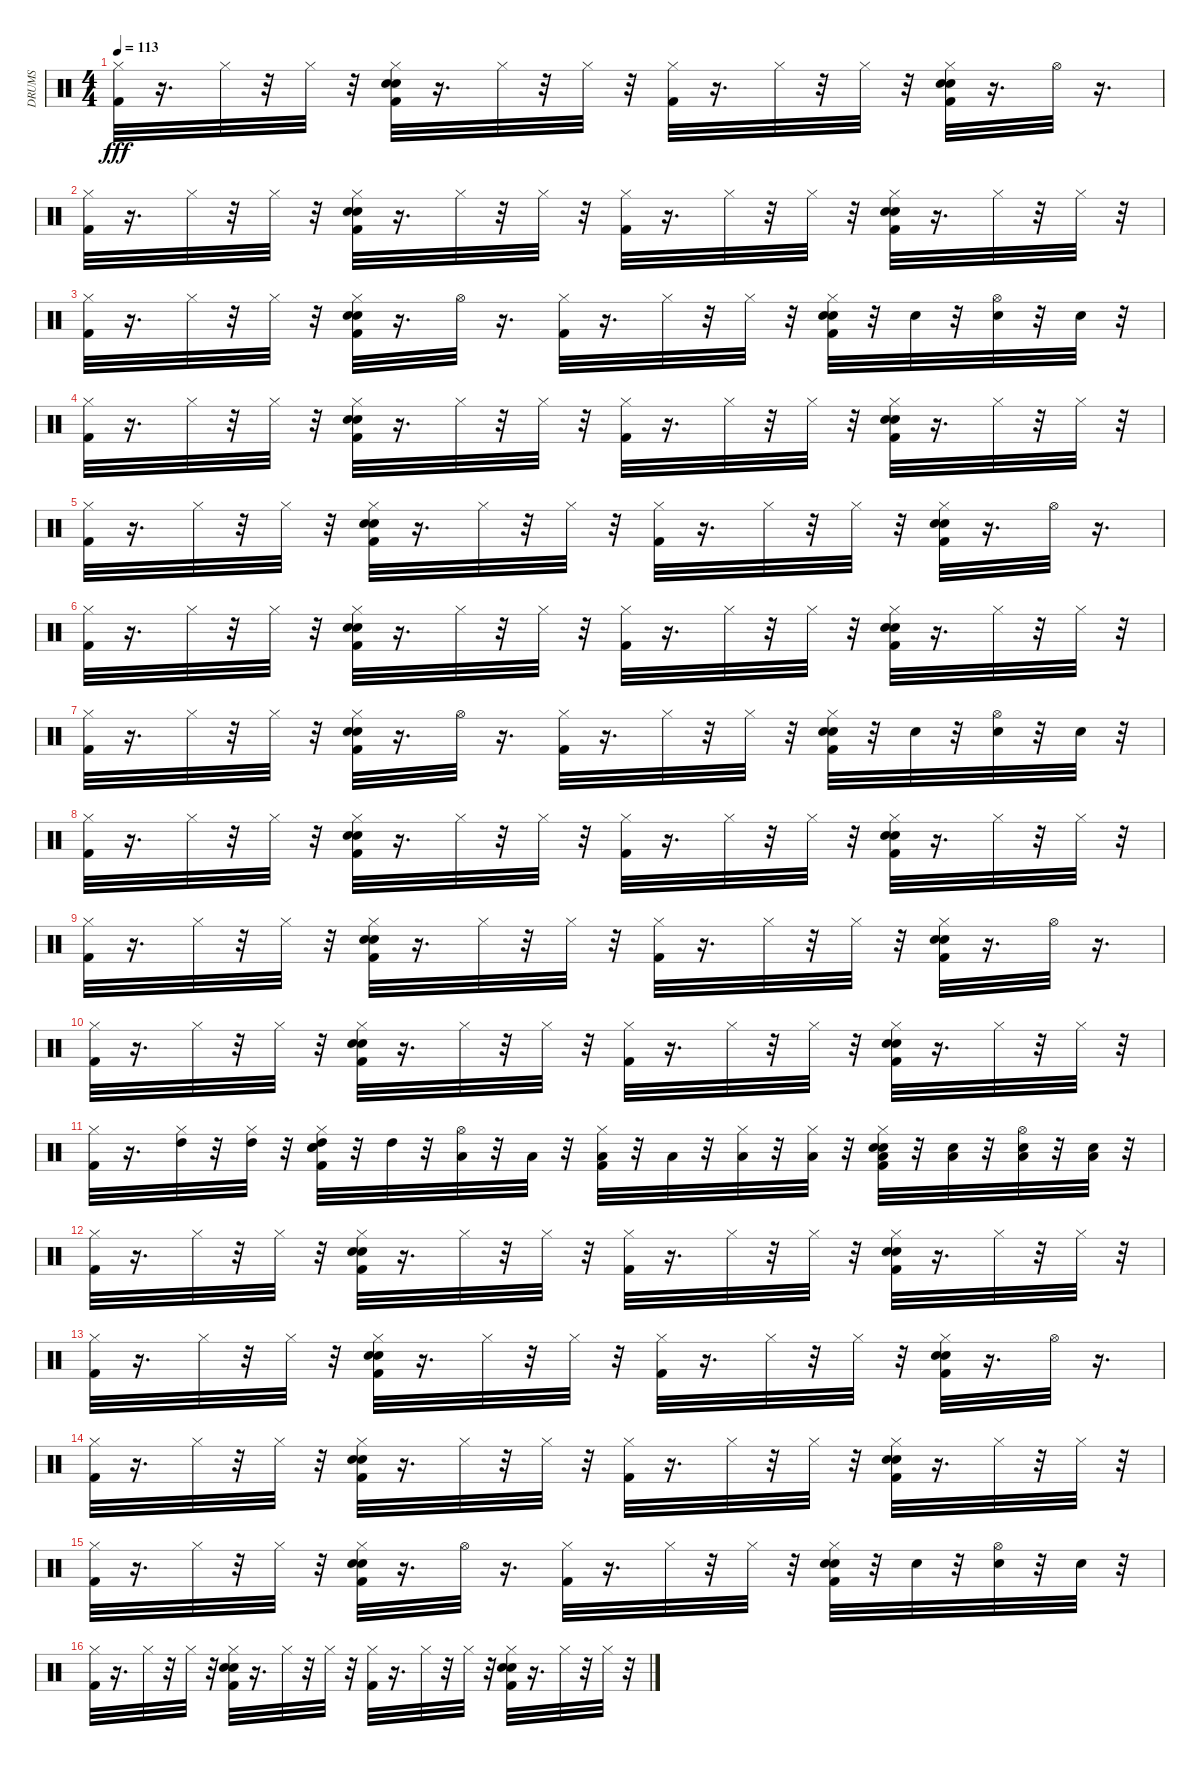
\track ("DRUMS" "DRUMS") {instrument percussion}
\staff {score}
\articulation defaults
\ts (4 4)
\tempo 113
\clef neutral
\ks c
("Hi-Hat (closed)" "Kick (hit) 2").32{dy fff} r.16{d} "Hi-Hat (closed)".32 r.32 "Hi-Hat (closed)".32 r.32 ("Hi-Hat (closed)" "Snare (hit) 2" "Kick (hit) 2" "Hand Clap (hit)").32 r.16{d} "Hi-Hat (closed)".32 r.32 "Hi-Hat (closed)".32 r.32 ("Hi-Hat (closed)" "Kick (hit) 2").32 r.16{d} "Hi-Hat (closed)".32 r.32 "Hi-Hat (closed)".32 r.32 ("Hi-Hat (closed)" "Snare (hit) 2" "Kick (hit) 2" "Hand Clap (hit)").32 r.16{d} "Hi-Hat (open)".32 r.16{d} |
("Hi-Hat (closed)" "Kick (hit) 2").32 r.16{d} "Hi-Hat (closed)".32 r.32 "Hi-Hat (closed)".32 r.32 ("Hi-Hat (closed)" "Snare (hit) 2" "Kick (hit) 2" "Hand Clap (hit)").32 r.16{d} "Hi-Hat (closed)".32 r.32 "Hi-Hat (closed)".32 r.32 ("Hi-Hat (closed)" "Kick (hit) 2").32 r.16{d} "Hi-Hat (closed)".32 r.32 "Hi-Hat (closed)".32 r.32 ("Hi-Hat (closed)" "Snare (hit) 2" "Kick (hit) 2" "Hand Clap (hit)").32 r.16{d} "Hi-Hat (closed)".32 r.32 "Hi-Hat (closed)".32 r.32 |
("Hi-Hat (closed)" "Kick (hit) 2").32 r.16{d} "Hi-Hat (closed)".32 r.32 "Hi-Hat (closed)".32 r.32 ("Hi-Hat (closed)" "Snare (hit) 2" "Kick (hit) 2" "Hand Clap (hit)").32 r.16{d} "Hi-Hat (open)".32 r.16{d} ("Hi-Hat (closed)" "Kick (hit) 2").32 r.16{d} "Hi-Hat (closed)".32 r.32 "Hi-Hat (closed)".32 r.32 ("Hi-Hat (closed)" "Snare (hit) 2" "Kick (hit) 2" "Hand Clap (hit)").32 r.32 "Hand Clap (hit)".32 r.32 ("Hi-Hat (open)" "Hand Clap (hit)").32 r.32 "Hand Clap (hit)".32 r.32 |
("Hi-Hat (closed)" "Kick (hit) 2").32 r.16{d} "Hi-Hat (closed)".32 r.32 "Hi-Hat (closed)".32 r.32 ("Hi-Hat (closed)" "Snare (hit) 2" "Kick (hit) 2" "Hand Clap (hit)").32 r.16{d} "Hi-Hat (closed)".32 r.32 "Hi-Hat (closed)".32 r.32 ("Hi-Hat (closed)" "Kick (hit) 2").32 r.16{d} "Hi-Hat (closed)".32 r.32 "Hi-Hat (closed)".32 r.32 ("Hi-Hat (closed)" "Snare (hit) 2" "Kick (hit) 2" "Hand Clap (hit)").32 r.16{d} "Hi-Hat (closed)".32 r.32 "Hi-Hat (closed)".32 r.32 |
("Hi-Hat (closed)" "Kick (hit) 2").32 r.16{d} "Hi-Hat (closed)".32 r.32 "Hi-Hat (closed)".32 r.32 ("Hi-Hat (closed)" "Snare (hit) 2" "Kick (hit) 2" "Hand Clap (hit)").32 r.16{d} "Hi-Hat (closed)".32 r.32 "Hi-Hat (closed)".32 r.32 ("Hi-Hat (closed)" "Kick (hit) 2").32 r.16{d} "Hi-Hat (closed)".32 r.32 "Hi-Hat (closed)".32 r.32 ("Hi-Hat (closed)" "Snare (hit) 2" "Kick (hit) 2" "Hand Clap (hit)").32 r.16{d} "Hi-Hat (open)".32 r.16{d} |
("Hi-Hat (closed)" "Kick (hit) 2").32 r.16{d} "Hi-Hat (closed)".32 r.32 "Hi-Hat (closed)".32 r.32 ("Hi-Hat (closed)" "Snare (hit) 2" "Kick (hit) 2" "Hand Clap (hit)").32 r.16{d} "Hi-Hat (closed)".32 r.32 "Hi-Hat (closed)".32 r.32 ("Hi-Hat (closed)" "Kick (hit) 2").32 r.16{d} "Hi-Hat (closed)".32 r.32 "Hi-Hat (closed)".32 r.32 ("Hi-Hat (closed)" "Snare (hit) 2" "Kick (hit) 2" "Hand Clap (hit)").32 r.16{d} "Hi-Hat (closed)".32 r.32 "Hi-Hat (closed)".32 r.32 |
("Hi-Hat (closed)" "Kick (hit) 2").32 r.16{d} "Hi-Hat (closed)".32 r.32 "Hi-Hat (closed)".32 r.32 ("Hi-Hat (closed)" "Snare (hit) 2" "Kick (hit) 2" "Hand Clap (hit)").32 r.16{d} "Hi-Hat (open)".32 r.16{d} ("Hi-Hat (closed)" "Kick (hit) 2").32 r.16{d} "Hi-Hat (closed)".32 r.32 "Hi-Hat (closed)".32 r.32 ("Hi-Hat (closed)" "Snare (hit) 2" "Kick (hit) 2" "Hand Clap (hit)").32 r.32 "Hand Clap (hit)".32 r.32 ("Hi-Hat (open)" "Hand Clap (hit)").32 r.32 "Hand Clap (hit)".32 r.32 |
("Hi-Hat (closed)" "Kick (hit) 2").32 r.16{d} "Hi-Hat (closed)".32 r.32 "Hi-Hat (closed)".32 r.32 ("Hi-Hat (closed)" "Snare (hit) 2" "Kick (hit) 2" "Hand Clap (hit)").32 r.16{d} "Hi-Hat (closed)".32 r.32 "Hi-Hat (closed)".32 r.32 ("Hi-Hat (closed)" "Kick (hit) 2").32 r.16{d} "Hi-Hat (closed)".32 r.32 "Hi-Hat (closed)".32 r.32 ("Hi-Hat (closed)" "Snare (hit) 2" "Kick (hit) 2" "Hand Clap (hit)").32 r.16{d} "Hi-Hat (closed)".32 r.32 "Hi-Hat (closed)".32 r.32 |
("Hi-Hat (closed)" "Kick (hit) 2").32 r.16{d} "Hi-Hat (closed)".32 r.32 "Hi-Hat (closed)".32 r.32 ("Hi-Hat (closed)" "Snare (hit) 2" "Kick (hit) 2" "Hand Clap (hit)").32 r.16{d} "Hi-Hat (closed)".32 r.32 "Hi-Hat (closed)".32 r.32 ("Hi-Hat (closed)" "Kick (hit) 2").32 r.16{d} "Hi-Hat (closed)".32 r.32 "Hi-Hat (closed)".32 r.32 ("Hi-Hat (closed)" "Snare (hit) 2" "Kick (hit) 2" "Hand Clap (hit)").32 r.16{d} "Hi-Hat (open)".32 r.16{d} |
("Hi-Hat (closed)" "Kick (hit) 2").32 r.16{d} "Hi-Hat (closed)".32 r.32 "Hi-Hat (closed)".32 r.32 ("Hi-Hat (closed)" "Snare (hit) 2" "Kick (hit) 2" "Hand Clap (hit)").32 r.16{d} "Hi-Hat (closed)".32 r.32 "Hi-Hat (closed)".32 r.32 ("Hi-Hat (closed)" "Kick (hit) 2").32 r.16{d} "Hi-Hat (closed)".32 r.32 "Hi-Hat (closed)".32 r.32 ("Hi-Hat (closed)" "Snare (hit) 2" "Kick (hit) 2" "Hand Clap (hit)").32 r.16{d} "Hi-Hat (closed)".32 r.32 "Hi-Hat (closed)".32 r.32 |
("Hi-Hat (closed)" "Kick (hit) 2").32 r.16{d} ("High Tom (hit)" "Hi-Hat (closed)").32 r.32 ("Hi-Hat (closed)" "High Tom (hit)").32 r.32 ("High Tom (hit)" "Hi-Hat (closed)" "Snare (hit) 2" "Kick (hit) 2" "Hand Clap (hit)").32 r.32 "High Tom (hit)".32 r.32 ("Hi-Hat (open)" "Low Tom (hit)").32 r.32 "Low Tom (hit)".32 r.32 ("Hi-Hat (closed)" "Low Tom (hit)" "Kick (hit) 2").32 r.32 "Low Tom (hit)".32 r.32 ("Hi-Hat (closed)" "Low Floor Tom (hit)").32 r.32 ("Hi-Hat (closed)" "Low Floor Tom (hit)").32 r.32 ("Hi-Hat (closed)" "Low Floor Tom (hit)" "Snare (hit) 2" "Kick (hit) 2" "Hand Clap (hit)").32 r.32 ("Low Floor Tom (hit)" "Hand Clap (hit)").32 r.32 ("Hi-Hat (open)" "Low Floor Tom (hit)" "Hand Clap (hit)").32 r.32 ("Low Floor Tom (hit)" "Hand Clap (hit)").32 r.32 |
("Hi-Hat (closed)" "Kick (hit) 2").32 r.16{d} "Hi-Hat (closed)".32 r.32 "Hi-Hat (closed)".32 r.32 ("Hi-Hat (closed)" "Snare (hit) 2" "Kick (hit) 2" "Hand Clap (hit)").32 r.16{d} "Hi-Hat (closed)".32 r.32 "Hi-Hat (closed)".32 r.32 ("Hi-Hat (closed)" "Kick (hit) 2").32 r.16{d} "Hi-Hat (closed)".32 r.32 "Hi-Hat (closed)".32 r.32 ("Hi-Hat (closed)" "Snare (hit) 2" "Kick (hit) 2" "Hand Clap (hit)").32 r.16{d} "Hi-Hat (closed)".32 r.32 "Hi-Hat (closed)".32 r.32 |
("Hi-Hat (closed)" "Kick (hit) 2").32 r.16{d} "Hi-Hat (closed)".32 r.32 "Hi-Hat (closed)".32 r.32 ("Hi-Hat (closed)" "Snare (hit) 2" "Kick (hit) 2" "Hand Clap (hit)").32 r.16{d} "Hi-Hat (closed)".32 r.32 "Hi-Hat (closed)".32 r.32 ("Hi-Hat (closed)" "Kick (hit) 2").32 r.16{d} "Hi-Hat (closed)".32 r.32 "Hi-Hat (closed)".32 r.32 ("Hi-Hat (closed)" "Snare (hit) 2" "Kick (hit) 2" "Hand Clap (hit)").32 r.16{d} "Hi-Hat (open)".32 r.16{d} |
("Hi-Hat (closed)" "Kick (hit) 2").32 r.16{d} "Hi-Hat (closed)".32 r.32 "Hi-Hat (closed)".32 r.32 ("Hi-Hat (closed)" "Snare (hit) 2" "Kick (hit) 2" "Hand Clap (hit)").32 r.16{d} "Hi-Hat (closed)".32 r.32 "Hi-Hat (closed)".32 r.32 ("Hi-Hat (closed)" "Kick (hit) 2").32 r.16{d} "Hi-Hat (closed)".32 r.32 "Hi-Hat (closed)".32 r.32 ("Hi-Hat (closed)" "Snare (hit) 2" "Kick (hit) 2" "Hand Clap (hit)").32 r.16{d} "Hi-Hat (closed)".32 r.32 "Hi-Hat (closed)".32 r.32 |
("Hi-Hat (closed)" "Kick (hit) 2").32 r.16{d} "Hi-Hat (closed)".32 r.32 "Hi-Hat (closed)".32 r.32 ("Hi-Hat (closed)" "Snare (hit) 2" "Kick (hit) 2" "Hand Clap (hit)").32 r.16{d} "Hi-Hat (open)".32 r.16{d} ("Hi-Hat (closed)" "Kick (hit) 2").32 r.16{d} "Hi-Hat (closed)".32 r.32 "Hi-Hat (closed)".32 r.32 ("Hi-Hat (closed)" "Snare (hit) 2" "Kick (hit) 2" "Hand Clap (hit)").32 r.32 "Hand Clap (hit)".32 r.32 ("Hi-Hat (open)" "Hand Clap (hit)").32 r.32 "Hand Clap (hit)".32 r.32 |
("Hi-Hat (closed)" "Kick (hit) 2").32 r.16{d} "Hi-Hat (closed)".32 r.32 "Hi-Hat (closed)".32 r.32 ("Hi-Hat (closed)" "Snare (hit) 2" "Kick (hit) 2" "Hand Clap (hit)").32 r.16{d} "Hi-Hat (closed)".32 r.32 "Hi-Hat (closed)".32 r.32 ("Hi-Hat (closed)" "Kick (hit) 2").32 r.16{d} "Hi-Hat (closed)".32 r.32 "Hi-Hat (closed)".32 r.32 ("Hi-Hat (closed)" "Snare (hit) 2" "Kick (hit) 2" "Hand Clap (hit)").32 r.16{d} "Hi-Hat (closed)".32 r.32 "Hi-Hat (closed)".32 r.32
